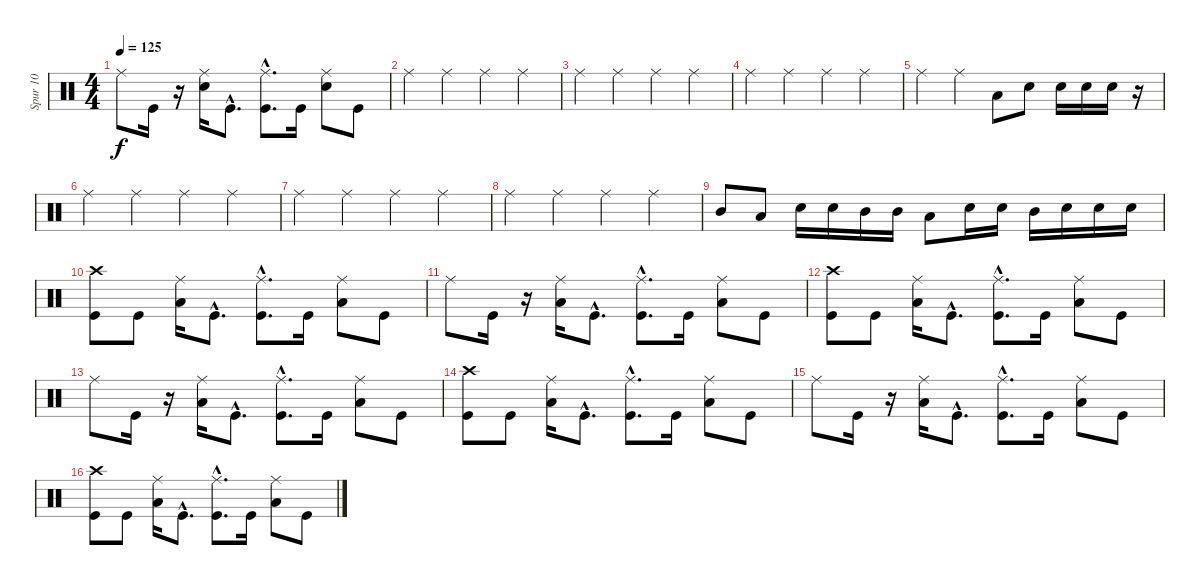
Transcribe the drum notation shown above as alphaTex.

\track ("Spur 10" "Spur 10") {instrument percussion}
\staff {score}
\articulation defaults
\ts (4 4)
\tempo 125
\clef neutral
\ks c "Ride (middle)".8{dy f} "Kick (hit)".16
r.16 ("Snare (hit) 2" "Ride (middle)").16 "Kick (hit)"{hac}.8{d} ("Ride (middle)" "Kick (hit)"{hac}).8{d} "Kick (hit)".16 ("Snare (hit) 2" "Ride (middle)").8 "Kick (hit)".8 |
"Ride (middle)".4 "Ride (middle)".4 "Ride (middle)".4 "Ride (middle)".4 |
"Ride (middle)".4 "Ride (middle)".4 "Ride (middle)".4 "Ride (middle)".4 |
"Ride (middle)".4 "Ride (middle)".4 "Ride (middle)".4 "Ride (middle)".4 |
"Ride (middle)".4 "Ride (middle)".4 "Low Tom (hit)".8 "Electric Snare (hit)".8 "Electric Snare (hit)".16 "Electric Snare (hit)".16 "Electric Snare (hit)".16 r.16 |
"Ride (middle)".4 "Ride (middle)".4 "Ride (middle)".4 "Ride (middle)".4 |
"Ride (middle)".4 "Ride (middle)".4 "Ride (middle)".4 "Ride (middle)".4 |
"Ride (middle)".4 "Ride (middle)".4 "Ride (middle)".4 "Ride (middle)".4 |
"Mid Tom (hit)".8 "Low Tom (hit)".8 "Electric Snare (hit)".16 "Electric Snare (hit)".16 "Mid Tom (hit)".16 "Mid Tom (hit)".16 "Low Tom (hit)".8 "Electric Snare (hit)".16 "Electric Snare (hit)".16 "Mid Tom (hit)".16 "Electric Snare (hit)".16 "Electric Snare (hit)".16 "Electric Snare (hit)".16 |
("Kick (hit)" "Crash high (hit)").8 "Kick (hit)".8 ("Low Tom (hit)" "Ride (middle)").16 "Kick (hit)"{hac}.8{d} ("Kick (hit)"{hac} "Ride (middle)").8{d} "Kick (hit)".16 ("Low Tom (hit)" "Ride (middle)").8 "Kick (hit)".8 |
"Ride (middle)".8 "Kick (hit)".16 r.16 ("Ride (middle)" "Low Tom (hit)").16 "Kick (hit)"{hac}.8{d} ("Ride (middle)" "Kick (hit)"{hac}).8{d} "Kick (hit)".16 ("Ride (middle)" "Low Tom (hit)").8 "Kick (hit)".8 |
("Crash high (hit)" "Kick (hit)").8 "Kick (hit)".8 ("Low Tom (hit)" "Ride (middle)").16 "Kick (hit)"{hac}.8{d} ("Kick (hit)"{hac} "Ride (middle)").8{d} "Kick (hit)".16 ("Ride (middle)" "Low Tom (hit)").8 "Kick (hit)".8 |
"Ride (middle)".8 "Kick (hit)".16 r.16 ("Ride (middle)" "Low Tom (hit)").16 "Kick (hit)"{hac}.8{d} ("Kick (hit)"{hac} "Ride (middle)").8{d} "Kick (hit)".16 ("Ride (middle)" "Low Tom (hit)").8 "Kick (hit)".8 |
("Crash high (hit)" "Kick (hit)").8 "Kick (hit)".8 ("Ride (middle)" "Low Tom (hit)").16 "Kick (hit)"{hac}.8{d} ("Ride (middle)" "Kick (hit)"{hac}).8{d} "Kick (hit)".16 ("Ride (middle)" "Low Tom (hit)").8 "Kick (hit)".8 |
"Ride (middle)".8 "Kick (hit)".16 r.16 ("Ride (middle)" "Low Tom (hit)").16 "Kick (hit)"{hac}.8{d} ("Kick (hit)"{hac} "Ride (middle)").8{d} "Kick (hit)".16 ("Ride (middle)" "Low Tom (hit)").8 "Kick (hit)".8 |
("Kick (hit)" "Crash high (hit)").8 "Kick (hit)".8 ("Low Tom (hit)" "Ride (middle)").16 "Kick (hit)"{hac}.8{d} ("Kick (hit)"{hac} "Ride (middle)").8{d} "Kick (hit)".16 ("Low Tom (hit)" "Ride (middle)").8 "Kick (hit)".8
